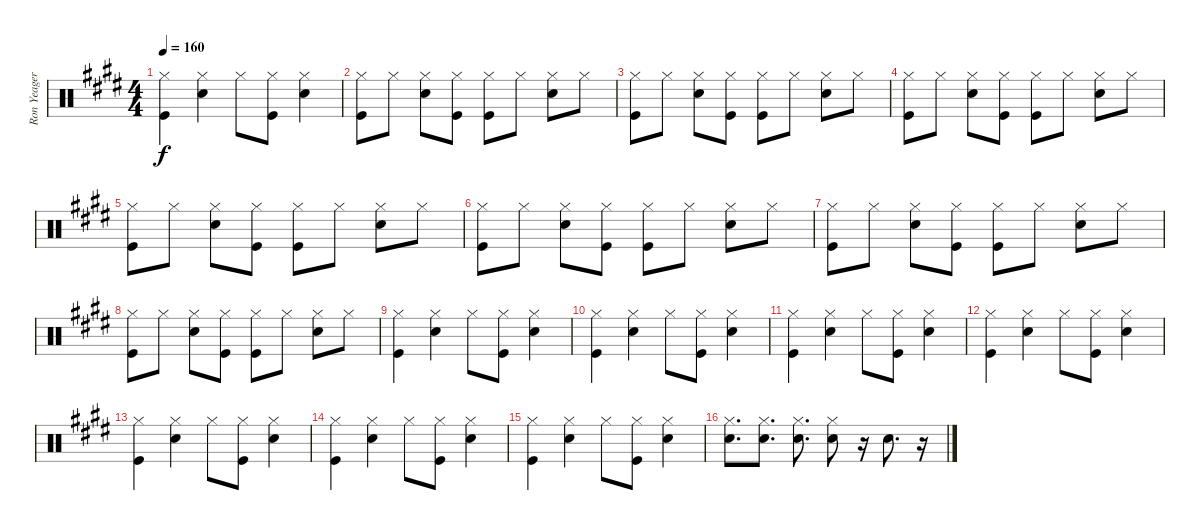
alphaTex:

\track ("Ron Yeager Drums" "Ron Yeager") {instrument percussion}
\staff {score}
\articulation defaults
\ts (4 4)
\tempo 160
\clef neutral
\ks e
("Hi-Hat (closed)" "Kick (hit)").4{dy f} ("Hi-Hat (closed)" "Snare (hit) 2").4 "Hi-Hat (closed)".8 ("Hi-Hat (closed)" "Kick (hit)").8 ("Hi-Hat (closed)" "Snare (hit) 2").4 |
("Hi-Hat (closed)" "Kick (hit)").8 "Hi-Hat (closed)".8 ("Hi-Hat (closed)" "Snare (hit) 2").8 ("Hi-Hat (closed)" "Kick (hit)").8 ("Hi-Hat (closed)" "Kick (hit)").8 "Hi-Hat (closed)".8 ("Hi-Hat (closed)" "Snare (hit) 2").8 "Hi-Hat (closed)".8 |
("Hi-Hat (closed)" "Kick (hit)").8 "Hi-Hat (closed)".8 ("Hi-Hat (closed)" "Snare (hit) 2").8 ("Hi-Hat (closed)" "Kick (hit)").8 ("Hi-Hat (closed)" "Kick (hit)").8 "Hi-Hat (closed)".8 ("Hi-Hat (closed)" "Snare (hit) 2").8 "Hi-Hat (closed)".8 |
("Hi-Hat (closed)" "Kick (hit)").8 "Hi-Hat (closed)".8 ("Hi-Hat (closed)" "Snare (hit) 2").8 ("Hi-Hat (closed)" "Kick (hit)").8 ("Hi-Hat (closed)" "Kick (hit)").8 "Hi-Hat (closed)".8 ("Hi-Hat (closed)" "Snare (hit) 2").8 "Hi-Hat (closed)".8 |
("Hi-Hat (closed)" "Kick (hit)").8 "Hi-Hat (closed)".8 ("Hi-Hat (closed)" "Snare (hit) 2").8 ("Hi-Hat (closed)" "Kick (hit)").8 ("Hi-Hat (closed)" "Kick (hit)").8 "Hi-Hat (closed)".8 ("Hi-Hat (closed)" "Snare (hit) 2").8 "Hi-Hat (closed)".8 |
("Hi-Hat (closed)" "Kick (hit)").8 "Hi-Hat (closed)".8 ("Hi-Hat (closed)" "Snare (hit) 2").8 ("Hi-Hat (closed)" "Kick (hit)").8 ("Hi-Hat (closed)" "Kick (hit)").8 "Hi-Hat (closed)".8 ("Hi-Hat (closed)" "Snare (hit) 2").8 "Hi-Hat (closed)".8 |
("Hi-Hat (closed)" "Kick (hit)").8 "Hi-Hat (closed)".8 ("Hi-Hat (closed)" "Snare (hit) 2").8 ("Hi-Hat (closed)" "Kick (hit)").8 ("Hi-Hat (closed)" "Kick (hit)").8 "Hi-Hat (closed)".8 ("Hi-Hat (closed)" "Snare (hit) 2").8 "Hi-Hat (closed)".8 |
("Hi-Hat (closed)" "Kick (hit)").8 "Hi-Hat (closed)".8 ("Hi-Hat (closed)" "Snare (hit) 2").8 ("Hi-Hat (closed)" "Kick (hit)").8 ("Hi-Hat (closed)" "Kick (hit)").8 "Hi-Hat (closed)".8 ("Hi-Hat (closed)" "Snare (hit) 2").8 "Hi-Hat (closed)".8 |
("Hi-Hat (closed)" "Kick (hit)").4 ("Hi-Hat (closed)" "Snare (hit) 2").4 "Hi-Hat (closed)".8 ("Hi-Hat (closed)" "Kick (hit)").8 ("Hi-Hat (closed)" "Snare (hit) 2").4 |
("Hi-Hat (closed)" "Kick (hit)").4 ("Hi-Hat (closed)" "Snare (hit) 2").4 "Hi-Hat (closed)".8 ("Hi-Hat (closed)" "Kick (hit)").8 ("Hi-Hat (closed)" "Snare (hit) 2").4 |
("Hi-Hat (closed)" "Kick (hit)").4 ("Hi-Hat (closed)" "Snare (hit) 2").4 "Hi-Hat (closed)".8 ("Hi-Hat (closed)" "Kick (hit)").8 ("Hi-Hat (closed)" "Snare (hit) 2").4 |
("Hi-Hat (closed)" "Kick (hit)").4 ("Hi-Hat (closed)" "Snare (hit) 2").4 "Hi-Hat (closed)".8 ("Hi-Hat (closed)" "Kick (hit)").8 ("Hi-Hat (closed)" "Snare (hit) 2").4 |
("Hi-Hat (closed)" "Kick (hit)").4 ("Hi-Hat (closed)" "Snare (hit) 2").4 "Hi-Hat (closed)".8 ("Hi-Hat (closed)" "Kick (hit)").8 ("Hi-Hat (closed)" "Snare (hit) 2").4 |
("Hi-Hat (closed)" "Kick (hit)").4 ("Hi-Hat (closed)" "Snare (hit) 2").4 "Hi-Hat (closed)".8 ("Hi-Hat (closed)" "Kick (hit)").8 ("Hi-Hat (closed)" "Snare (hit) 2").4 |
("Hi-Hat (closed)" "Kick (hit)").4 ("Hi-Hat (closed)" "Snare (hit) 2").4 "Hi-Hat (closed)".8 ("Hi-Hat (closed)" "Kick (hit)").8 ("Hi-Hat (closed)" "Snare (hit) 2").4 |
("Hi-Hat (closed)" "Snare (hit) 2").8{d} ("Hi-Hat (closed)" "Snare (hit) 2").8{d} ("Hi-Hat (closed)" "Snare (hit) 2").8{d} ("Hi-Hat (closed)" "Snare (hit) 2").8 r.16 "Snare (hit) 2".8{d} r.16
